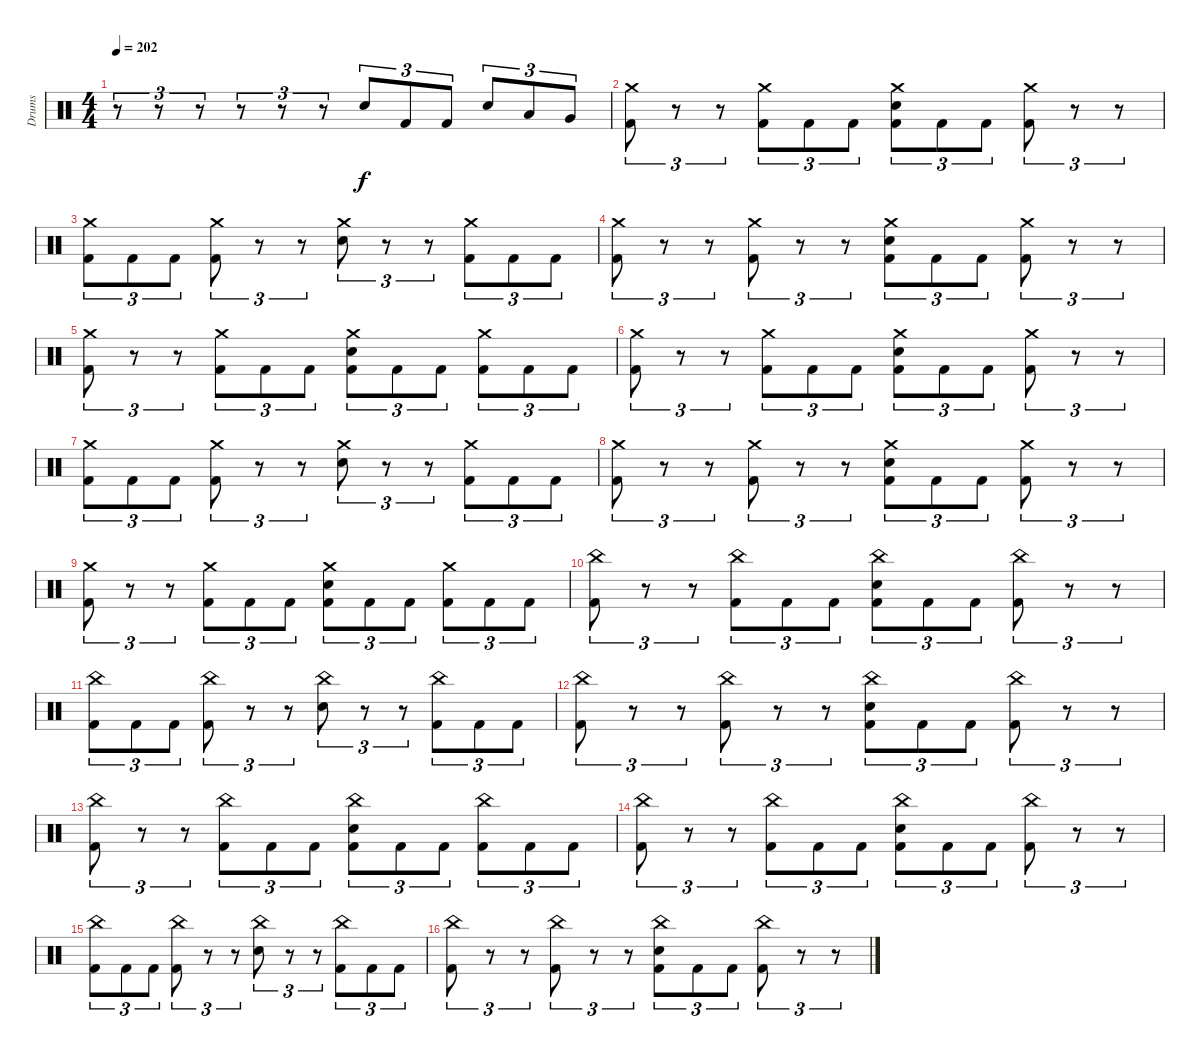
\track ("Drums" "Drums") {instrument percussion}
\staff {score}
\articulation defaults
\ts (4 4)
\tempo 202
\clef neutral
\ks c
r.8{tu (3 2) dy f} r.8{tu (3 2)} r.8{tu (3 2)} r.8{tu (3 2)} r.8{tu (3 2)} r.8{tu (3 2)} "Electric Snare (hit)".8{tu (3 2)} "Kick (hit) 2".8{tu (3 2)} "Kick (hit) 2".8{tu (3 2)} "Electric Snare (hit)".8{tu (3 2)} "Low Tom (hit)".8{tu (3 2)} "Very Low Tom (hit)".8{tu (3 2)} |
("Crash medium (hit)" "Kick (hit) 2").8{tu (3 2)} r.8{tu (3 2)} r.8{tu (3 2)} ("Crash medium (hit)" "Kick (hit) 2").8{tu (3 2)} "Kick (hit) 2".8{tu (3 2)} "Kick (hit) 2".8{tu (3 2)} ("Crash medium (hit)" "Electric Snare (hit)" "Kick (hit) 2").8{tu (3 2)} "Kick (hit) 2".8{tu (3 2)} "Kick (hit) 2".8{tu (3 2)} ("Crash medium (hit)" "Kick (hit) 2").8{tu (3 2)} r.8{tu (3 2)} r.8{tu (3 2)} |
("Crash medium (hit)" "Kick (hit) 2").8{tu (3 2)} "Kick (hit) 2".8{tu (3 2)} "Kick (hit) 2".8{tu (3 2)} ("Crash medium (hit)" "Kick (hit) 2").8{tu (3 2)} r.8{tu (3 2)} r.8{tu (3 2)} ("Crash medium (hit)" "Electric Snare (hit)").8{tu (3 2)} r.8{tu (3 2)} r.8{tu (3 2)} ("Crash medium (hit)" "Kick (hit) 2").8{tu (3 2)} "Kick (hit) 2".8{tu (3 2)} "Kick (hit) 2".8{tu (3 2)} |
("Crash medium (hit)" "Kick (hit) 2").8{tu (3 2)} r.8{tu (3 2)} r.8{tu (3 2)} ("Crash medium (hit)" "Kick (hit) 2").8{tu (3 2)} r.8{tu (3 2)} r.8{tu (3 2)} ("Crash medium (hit)" "Electric Snare (hit)" "Kick (hit) 2").8{tu (3 2)} "Kick (hit) 2".8{tu (3 2)} "Kick (hit) 2".8{tu (3 2)} ("Crash medium (hit)" "Kick (hit) 2").8{tu (3 2)} r.8{tu (3 2)} r.8{tu (3 2)} |
("Crash medium (hit)" "Kick (hit) 2").8{tu (3 2)} r.8{tu (3 2)} r.8{tu (3 2)} ("Crash medium (hit)" "Kick (hit) 2").8{tu (3 2)} "Kick (hit) 2".8{tu (3 2)} "Kick (hit) 2".8{tu (3 2)} ("Crash medium (hit)" "Electric Snare (hit)" "Kick (hit) 2").8{tu (3 2)} "Kick (hit) 2".8{tu (3 2)} "Kick (hit) 2".8{tu (3 2)} ("Crash medium (hit)" "Kick (hit) 2").8{tu (3 2)} "Kick (hit) 2".8{tu (3 2)} "Kick (hit) 2".8{tu (3 2)} |
("Crash medium (hit)" "Kick (hit) 2").8{tu (3 2)} r.8{tu (3 2)} r.8{tu (3 2)} ("Crash medium (hit)" "Kick (hit) 2").8{tu (3 2)} "Kick (hit) 2".8{tu (3 2)} "Kick (hit) 2".8{tu (3 2)} ("Crash medium (hit)" "Electric Snare (hit)" "Kick (hit) 2").8{tu (3 2)} "Kick (hit) 2".8{tu (3 2)} "Kick (hit) 2".8{tu (3 2)} ("Crash medium (hit)" "Kick (hit) 2").8{tu (3 2)} r.8{tu (3 2)} r.8{tu (3 2)} |
("Crash medium (hit)" "Kick (hit) 2").8{tu (3 2)} "Kick (hit) 2".8{tu (3 2)} "Kick (hit) 2".8{tu (3 2)} ("Crash medium (hit)" "Kick (hit) 2").8{tu (3 2)} r.8{tu (3 2)} r.8{tu (3 2)} ("Crash medium (hit)" "Electric Snare (hit)").8{tu (3 2)} r.8{tu (3 2)} r.8{tu (3 2)} ("Crash medium (hit)" "Kick (hit) 2").8{tu (3 2)} "Kick (hit) 2".8{tu (3 2)} "Kick (hit) 2".8{tu (3 2)} |
("Crash medium (hit)" "Kick (hit) 2").8{tu (3 2)} r.8{tu (3 2)} r.8{tu (3 2)} ("Crash medium (hit)" "Kick (hit) 2").8{tu (3 2)} r.8{tu (3 2)} r.8{tu (3 2)} ("Crash medium (hit)" "Electric Snare (hit)" "Kick (hit) 2").8{tu (3 2)} "Kick (hit) 2".8{tu (3 2)} "Kick (hit) 2".8{tu (3 2)} ("Crash medium (hit)" "Kick (hit) 2").8{tu (3 2)} r.8{tu (3 2)} r.8{tu (3 2)} |
("Crash medium (hit)" "Kick (hit) 2").8{tu (3 2)} r.8{tu (3 2)} r.8{tu (3 2)} ("Crash medium (hit)" "Kick (hit) 2").8{tu (3 2)} "Kick (hit) 2".8{tu (3 2)} "Kick (hit) 2".8{tu (3 2)} ("Crash medium (hit)" "Electric Snare (hit)" "Kick (hit) 2").8{tu (3 2)} "Kick (hit) 2".8{tu (3 2)} "Kick (hit) 2".8{tu (3 2)} ("Crash medium (hit)" "Kick (hit) 2").8{tu (3 2)} "Kick (hit) 2".8{tu (3 2)} "Kick (hit) 2".8{tu (3 2)} |
("China (hit)" "Kick (hit) 2").8{tu (3 2)} r.8{tu (3 2)} r.8{tu (3 2)} ("China (hit)" "Kick (hit) 2").8{tu (3 2)} "Kick (hit) 2".8{tu (3 2)} "Kick (hit) 2".8{tu (3 2)} ("China (hit)" "Electric Snare (hit)" "Kick (hit) 2").8{tu (3 2)} "Kick (hit) 2".8{tu (3 2)} "Kick (hit) 2".8{tu (3 2)} ("China (hit)" "Kick (hit) 2").8{tu (3 2)} r.8{tu (3 2)} r.8{tu (3 2)} |
("China (hit)" "Kick (hit) 2").8{tu (3 2)} "Kick (hit) 2".8{tu (3 2)} "Kick (hit) 2".8{tu (3 2)} ("China (hit)" "Kick (hit) 2").8{tu (3 2)} r.8{tu (3 2)} r.8{tu (3 2)} ("China (hit)" "Electric Snare (hit)").8{tu (3 2)} r.8{tu (3 2)} r.8{tu (3 2)} ("China (hit)" "Kick (hit) 2").8{tu (3 2)} "Kick (hit) 2".8{tu (3 2)} "Kick (hit) 2".8{tu (3 2)} |
("China (hit)" "Kick (hit) 2").8{tu (3 2)} r.8{tu (3 2)} r.8{tu (3 2)} ("China (hit)" "Kick (hit) 2").8{tu (3 2)} r.8{tu (3 2)} r.8{tu (3 2)} ("China (hit)" "Electric Snare (hit)" "Kick (hit) 2").8{tu (3 2)} "Kick (hit) 2".8{tu (3 2)} "Kick (hit) 2".8{tu (3 2)} ("China (hit)" "Kick (hit) 2").8{tu (3 2)} r.8{tu (3 2)} r.8{tu (3 2)} |
("China (hit)" "Kick (hit) 2").8{tu (3 2)} r.8{tu (3 2)} r.8{tu (3 2)} ("China (hit)" "Kick (hit) 2").8{tu (3 2)} "Kick (hit) 2".8{tu (3 2)} "Kick (hit) 2".8{tu (3 2)} ("China (hit)" "Electric Snare (hit)" "Kick (hit) 2").8{tu (3 2)} "Kick (hit) 2".8{tu (3 2)} "Kick (hit) 2".8{tu (3 2)} ("China (hit)" "Kick (hit) 2").8{tu (3 2)} "Kick (hit) 2".8{tu (3 2)} "Kick (hit) 2".8{tu (3 2)} |
("China (hit)" "Kick (hit) 2").8{tu (3 2)} r.8{tu (3 2)} r.8{tu (3 2)} ("China (hit)" "Kick (hit) 2").8{tu (3 2)} "Kick (hit) 2".8{tu (3 2)} "Kick (hit) 2".8{tu (3 2)} ("China (hit)" "Electric Snare (hit)" "Kick (hit) 2").8{tu (3 2)} "Kick (hit) 2".8{tu (3 2)} "Kick (hit) 2".8{tu (3 2)} ("China (hit)" "Kick (hit) 2").8{tu (3 2)} r.8{tu (3 2)} r.8{tu (3 2)} |
("China (hit)" "Kick (hit) 2").8{tu (3 2)} "Kick (hit) 2".8{tu (3 2)} "Kick (hit) 2".8{tu (3 2)} ("China (hit)" "Kick (hit) 2").8{tu (3 2)} r.8{tu (3 2)} r.8{tu (3 2)} ("China (hit)" "Electric Snare (hit)").8{tu (3 2)} r.8{tu (3 2)} r.8{tu (3 2)} ("China (hit)" "Kick (hit) 2").8{tu (3 2)} "Kick (hit) 2".8{tu (3 2)} "Kick (hit) 2".8{tu (3 2)} |
("China (hit)" "Kick (hit) 2").8{tu (3 2)} r.8{tu (3 2)} r.8{tu (3 2)} ("China (hit)" "Kick (hit) 2").8{tu (3 2)} r.8{tu (3 2)} r.8{tu (3 2)} ("China (hit)" "Electric Snare (hit)" "Kick (hit) 2").8{tu (3 2)} "Kick (hit) 2".8{tu (3 2)} "Kick (hit) 2".8{tu (3 2)} ("China (hit)" "Kick (hit) 2").8{tu (3 2)} r.8{tu (3 2)} r.8{tu (3 2)}
